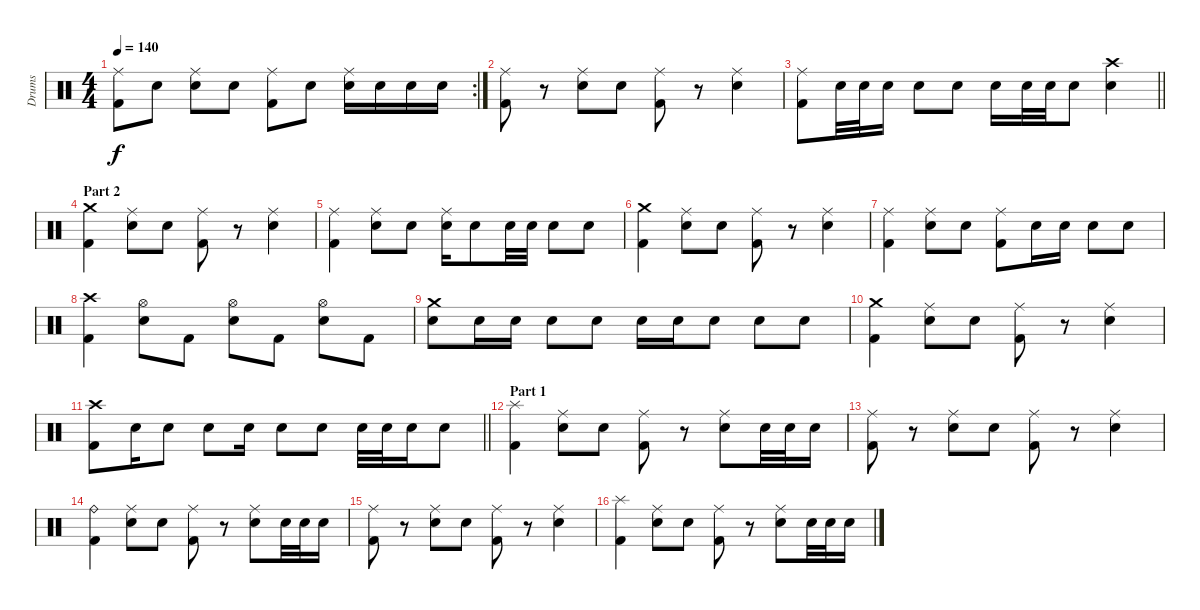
\track ("Drums" "Drums") {instrument percussion}
\staff {score}
\articulation defaults
\rc 2
\ts (4 4)
\tempo 140
\clef neutral
\ks c
("Ride (middle)" "Kick (hit) 2").8{dy f} "Snare (hit) 2".8 ("Ride (middle)" "Snare (hit) 2").8 "Snare (hit) 2".8 ("Ride (middle)" "Kick (hit) 2").8 "Snare (hit) 2".8 ("Ride (middle)" "Snare (hit) 2").16 "Snare (hit) 2".16 "Snare (hit) 2".16 "Snare (hit) 2".16 |
("Ride (middle)" "Kick (hit) 2").8 r.8 ("Ride (middle)" "Snare (hit) 2").8 "Snare (hit) 2".8 ("Ride (middle)" "Kick (hit) 2").8 r.8 ("Ride (middle)" "Snare (hit) 2").4 |
\barLineRight lightlight
("Ride (middle)" "Kick (hit) 2").8 "Snare (hit) 2".32 "Snare (hit) 2".32 "Snare (hit) 2".16 "Snare (hit) 2".8 "Snare (hit) 2".8 "Snare (hit) 2".16 "Snare (hit) 2".32 "Snare (hit) 2".32 "Snare (hit) 2".8 ("Crash high (hit)" "Snare (hit) 2").4 |
\section ("" "Part 2")
("Crash medium (hit)" "Kick (hit) 2").4 ("Ride (middle)" "Snare (hit) 2").8 "Snare (hit) 2".8 ("Ride (middle)" "Kick (hit) 2").8 r.8 ("Ride (middle)" "Snare (hit) 2").4 |
("Ride (middle)" "Kick (hit) 2").4 ("Ride (middle)" "Snare (hit) 2").8 "Snare (hit) 2".8 ("Ride (middle)" "Snare (hit) 2").16 "Snare (hit) 2".8 "Snare (hit) 2".32 "Snare (hit) 2".32 "Snare (hit) 2".8 "Snare (hit) 2".8 |
("Crash medium (hit)" "Kick (hit) 2").4 ("Ride (middle)" "Snare (hit) 2").8 "Snare (hit) 2".8 ("Ride (middle)" "Kick (hit) 2").8 r.8 ("Ride (middle)" "Snare (hit) 2").4 |
("Ride (middle)" "Kick (hit) 2").4 ("Ride (middle)" "Snare (hit) 2").8 "Snare (hit) 2".8 ("Ride (middle)" "Kick (hit) 2").8 "Snare (hit) 2".16 "Snare (hit) 2".16 "Snare (hit) 2".8 "Snare (hit) 2".8 |
("Crash high (hit)" "Kick (hit) 2").4 ("Hi-Hat (open)" "Snare (hit) 2").8 "Kick (hit) 2".8 ("Hi-Hat (open)" "Snare (hit) 2").8 "Kick (hit) 2".8 ("Hi-Hat (open)" "Snare (hit) 2").8 "Kick (hit) 2".8 |
("Crash medium (hit)" "Snare (hit) 2").8 "Snare (hit) 2".16 "Snare (hit) 2".16 "Snare (hit) 2".8 "Snare (hit) 2".8 "Snare (hit) 2".16 "Snare (hit) 2".16 "Snare (hit) 2".8 "Snare (hit) 2".8 "Snare (hit) 2".8 |
("Crash medium (hit)" "Kick (hit) 2").4 ("Ride (middle)" "Snare (hit) 2").8 "Snare (hit) 2".8 ("Ride (middle)" "Kick (hit) 2").8 r.8 ("Ride (middle)" "Snare (hit) 2").4 |
\barLineRight lightlight
("Crash high (hit)" "Kick (hit) 2").8 "Snare (hit) 2".16 "Snare (hit) 2".8 "Snare (hit) 2".8 "Snare (hit) 2".16 "Snare (hit) 2".8 "Snare (hit) 2".8 "Snare (hit) 2".32 "Snare (hit) 2".32 "Snare (hit) 2".16 "Snare (hit) 2".8 |
\section ("" "Part 1")
("Splash (hit)" "Kick (hit) 2").4 ("Ride (middle)" "Snare (hit) 2").8 "Snare (hit) 2".8 ("Ride (middle)" "Kick (hit) 2").8 r.8 ("Ride (middle)" "Snare (hit) 2").8 "Snare (hit) 2".32 "Snare (hit) 2".32 "Snare (hit) 2".16 |
("Ride (middle)" "Kick (hit) 2").8 r.8 ("Ride (middle)" "Snare (hit) 2").8 "Snare (hit) 2".8 ("Ride (middle)" "Kick (hit) 2").8 r.8 ("Ride (middle)" "Snare (hit) 2").4 |
("Ride (bell)" "Kick (hit) 2").4 ("Ride (middle)" "Snare (hit) 2").8 "Snare (hit) 2".8 ("Ride (middle)" "Kick (hit) 2").8 r.8 ("Ride (middle)" "Snare (hit) 2").8 "Snare (hit) 2".32 "Snare (hit) 2".32 "Snare (hit) 2".16 |
("Ride (middle)" "Kick (hit) 2").8 r.8 ("Ride (middle)" "Snare (hit) 2").8 "Snare (hit) 2".8 ("Ride (middle)" "Kick (hit) 2").8 r.8 ("Ride (middle)" "Snare (hit) 2").4 |
("Splash (hit)" "Kick (hit) 2").4 ("Ride (middle)" "Snare (hit) 2").8 "Snare (hit) 2".8 ("Ride (middle)" "Kick (hit) 2").8 r.8 ("Ride (middle)" "Snare (hit) 2").8 "Snare (hit) 2".32 "Snare (hit) 2".32 "Snare (hit) 2".16
